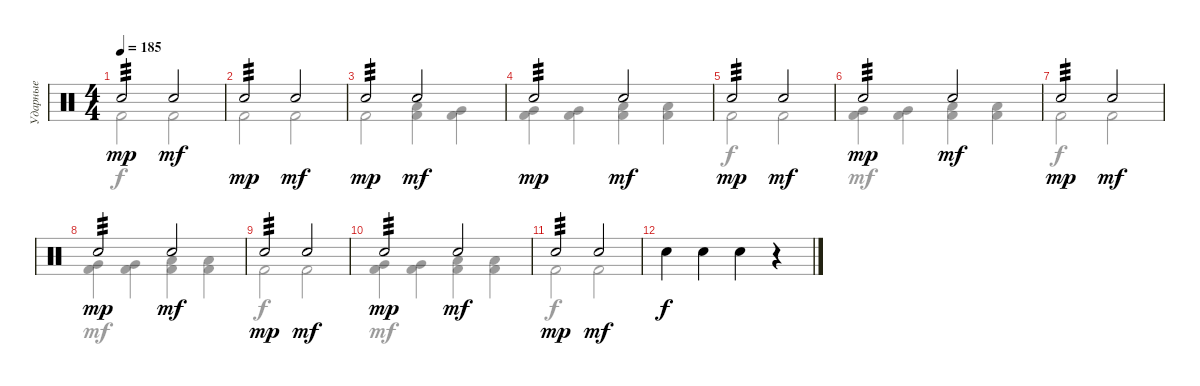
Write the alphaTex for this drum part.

\track ("Ударные" "Ударные") {instrument percussion}
\staff {score}
\articulation defaults
\voice
\ts (4 4)
\tempo 185
\clef neutral
\ks c "Electric Snare (hit)".2{tp 3 dy mp} "Electric Snare (hit)".2{dy mf}
|
"Electric Snare (hit)".2{tp 3 dy mp} "Electric Snare (hit)".2{dy mf} |
"Electric Snare (hit)".2{tp 3 dy mp} "Electric Snare (hit)".2{dy mf} |
"Electric Snare (hit)".2{tp 3 dy mp} "Electric Snare (hit)".2{dy mf} |
"Electric Snare (hit)".2{tp 3 dy mp} "Electric Snare (hit)".2{dy mf} |
"Electric Snare (hit)".2{tp 3 dy mp} "Electric Snare (hit)".2{dy mf} |
"Electric Snare (hit)".2{tp 3 dy mp} "Electric Snare (hit)".2{dy mf} |
"Electric Snare (hit)".2{tp 3 dy mp} "Electric Snare (hit)".2{dy mf} |
"Electric Snare (hit)".2{tp 3 dy mp} "Electric Snare (hit)".2{dy mf} |
"Electric Snare (hit)".2{tp 3 dy mp} "Electric Snare (hit)".2{dy mf} |
"Electric Snare (hit)".2{tp 3 dy mp} "Electric Snare (hit)".2{dy mf} |
"Electric Snare (hit)".4{dy f} "Electric Snare (hit)".4 "Electric Snare (hit)".4 r.4 |
\voice
\clef neutral
\ottava regular
\simile none
\ks c "Kick (hit) 2".2{dy f} "Kick (hit) 2".2
|
"Kick (hit) 2".2 "Kick (hit) 2".2 |
"Kick (hit) 2".2 ("Kick (hit) 2" "Low Floor Tom (hit)").4{dy mf} ("Kick (hit) 2" "Very Low Tom (hit)").4 |
("Kick (hit) 2" "Very Low Tom (hit)").4 ("Kick (hit) 2" "Very Low Tom (hit)").4 ("Kick (hit) 2" "Low Floor Tom (hit)").4 ("Kick (hit) 2" "Low Floor Tom (hit)").4 |
"Kick (hit) 2".2{dy f} "Kick (hit) 2".2 |
("Kick (hit) 2" "Very Low Tom (hit)").4{dy mf} ("Kick (hit) 2" "Very Low Tom (hit)").4 ("Kick (hit) 2" "Low Floor Tom (hit)").4 ("Kick (hit) 2" "Low Floor Tom (hit)").4 |
"Kick (hit) 2".2{dy f} "Kick (hit) 2".2 |
("Kick (hit) 2" "Very Low Tom (hit)").4{dy mf} ("Kick (hit) 2" "Very Low Tom (hit)").4 ("Kick (hit) 2" "Low Floor Tom (hit)").4 ("Kick (hit) 2" "Low Floor Tom (hit)").4 |
"Kick (hit) 2".2{dy f} "Kick (hit) 2".2 |
("Kick (hit) 2" "Very Low Tom (hit)").4{dy mf} ("Kick (hit) 2" "Very Low Tom (hit)").4 ("Kick (hit) 2" "Low Floor Tom (hit)").4 ("Kick (hit) 2" "Low Floor Tom (hit)").4 |
"Kick (hit) 2".2{dy f} "Kick (hit) 2".2 |
|
